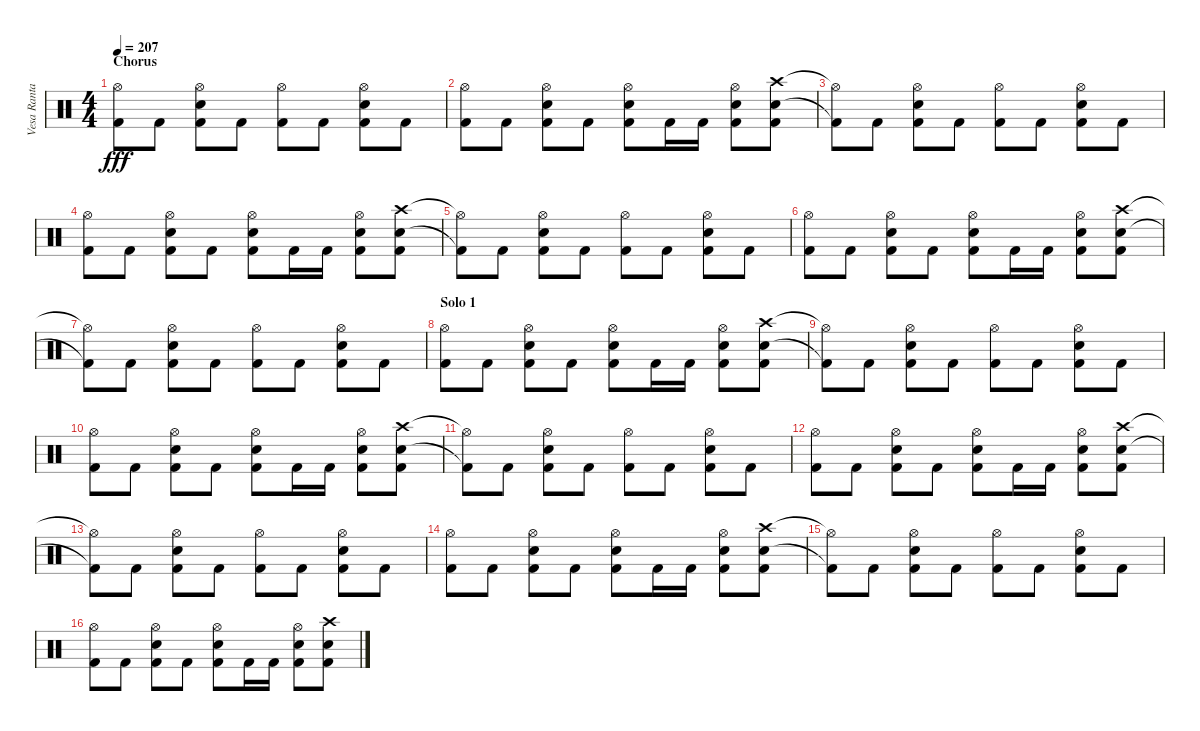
\track ("Vesa Ranta" "Vesa Ranta") {instrument percussion}
\staff {score}
\articulation defaults
\ts (4 4)
\section ("" "Chorus")
\tempo 207
\clef neutral
\ks c
("Hi-Hat (open)"{t} "Kick (hit) 2"{t}).8{dy fff} "Kick (hit) 2".8 ("Hi-Hat (open)" "Snare (hit) 2" "Kick (hit) 2").8 "Kick (hit) 2".8 ("Hi-Hat (open)" "Kick (hit) 2").8 "Kick (hit) 2".8 ("Hi-Hat (open)" "Snare (hit) 2" "Kick (hit) 2").8 "Kick (hit) 2".8 |
("Hi-Hat (open)" "Kick (hit) 2").8 "Kick (hit) 2".8 ("Hi-Hat (open)" "Snare (hit) 2" "Kick (hit) 2").8 "Kick (hit) 2".8 ("Hi-Hat (open)" "Snare (hit) 2" "Kick (hit) 2").8 "Kick (hit) 2".16 "Kick (hit) 2".16 ("Hi-Hat (open)" "Snare (hit) 2" "Kick (hit) 2").8 ("Crash high (hit)" "Snare (hit) 2" "Kick (hit) 2").8 |
("Hi-Hat (open)"{t} "Kick (hit) 2"{t}).8 "Kick (hit) 2".8 ("Hi-Hat (open)" "Snare (hit) 2" "Kick (hit) 2").8 "Kick (hit) 2".8 ("Hi-Hat (open)" "Kick (hit) 2").8 "Kick (hit) 2".8 ("Hi-Hat (open)" "Snare (hit) 2" "Kick (hit) 2").8 "Kick (hit) 2".8 |
("Hi-Hat (open)" "Kick (hit) 2").8 "Kick (hit) 2".8 ("Hi-Hat (open)" "Snare (hit) 2" "Kick (hit) 2").8 "Kick (hit) 2".8 ("Hi-Hat (open)" "Snare (hit) 2" "Kick (hit) 2").8 "Kick (hit) 2".16 "Kick (hit) 2".16 ("Hi-Hat (open)" "Snare (hit) 2" "Kick (hit) 2").8 ("Crash high (hit)" "Snare (hit) 2" "Kick (hit) 2").8 |
("Hi-Hat (open)"{t} "Kick (hit) 2"{t}).8 "Kick (hit) 2".8 ("Hi-Hat (open)" "Snare (hit) 2" "Kick (hit) 2").8 "Kick (hit) 2".8 ("Hi-Hat (open)" "Kick (hit) 2").8 "Kick (hit) 2".8 ("Hi-Hat (open)" "Snare (hit) 2" "Kick (hit) 2").8 "Kick (hit) 2".8 |
("Hi-Hat (open)" "Kick (hit) 2").8 "Kick (hit) 2".8 ("Hi-Hat (open)" "Snare (hit) 2" "Kick (hit) 2").8 "Kick (hit) 2".8 ("Hi-Hat (open)" "Snare (hit) 2" "Kick (hit) 2").8 "Kick (hit) 2".16 "Kick (hit) 2".16 ("Hi-Hat (open)" "Snare (hit) 2" "Kick (hit) 2").8 ("Crash high (hit)" "Snare (hit) 2" "Kick (hit) 2").8 |
("Hi-Hat (open)"{t} "Kick (hit) 2"{t}).8 "Kick (hit) 2".8 ("Hi-Hat (open)" "Snare (hit) 2" "Kick (hit) 2").8 "Kick (hit) 2".8 ("Hi-Hat (open)" "Kick (hit) 2").8 "Kick (hit) 2".8 ("Hi-Hat (open)" "Snare (hit) 2" "Kick (hit) 2").8 "Kick (hit) 2".8 |
\section ("" "Solo 1")
("Hi-Hat (open)" "Kick (hit) 2").8 "Kick (hit) 2".8 ("Hi-Hat (open)" "Snare (hit) 2" "Kick (hit) 2").8 "Kick (hit) 2".8 ("Hi-Hat (open)" "Snare (hit) 2" "Kick (hit) 2").8 "Kick (hit) 2".16 "Kick (hit) 2".16 ("Hi-Hat (open)" "Snare (hit) 2" "Kick (hit) 2").8 ("Crash high (hit)" "Snare (hit) 2" "Kick (hit) 2").8 |
("Hi-Hat (open)"{t} "Kick (hit) 2"{t}).8 "Kick (hit) 2".8 ("Hi-Hat (open)" "Snare (hit) 2" "Kick (hit) 2").8 "Kick (hit) 2".8 ("Hi-Hat (open)" "Kick (hit) 2").8 "Kick (hit) 2".8 ("Hi-Hat (open)" "Snare (hit) 2" "Kick (hit) 2").8 "Kick (hit) 2".8 |
("Hi-Hat (open)" "Kick (hit) 2").8 "Kick (hit) 2".8 ("Hi-Hat (open)" "Snare (hit) 2" "Kick (hit) 2").8 "Kick (hit) 2".8 ("Hi-Hat (open)" "Snare (hit) 2" "Kick (hit) 2").8 "Kick (hit) 2".16 "Kick (hit) 2".16 ("Hi-Hat (open)" "Snare (hit) 2" "Kick (hit) 2").8 ("Crash high (hit)" "Snare (hit) 2" "Kick (hit) 2").8 |
("Hi-Hat (open)"{t} "Kick (hit) 2"{t}).8 "Kick (hit) 2".8 ("Hi-Hat (open)" "Snare (hit) 2" "Kick (hit) 2").8 "Kick (hit) 2".8 ("Hi-Hat (open)" "Kick (hit) 2").8 "Kick (hit) 2".8 ("Hi-Hat (open)" "Snare (hit) 2" "Kick (hit) 2").8 "Kick (hit) 2".8 |
("Hi-Hat (open)" "Kick (hit) 2").8 "Kick (hit) 2".8 ("Hi-Hat (open)" "Snare (hit) 2" "Kick (hit) 2").8 "Kick (hit) 2".8 ("Hi-Hat (open)" "Snare (hit) 2" "Kick (hit) 2").8 "Kick (hit) 2".16 "Kick (hit) 2".16 ("Hi-Hat (open)" "Snare (hit) 2" "Kick (hit) 2").8 ("Crash high (hit)" "Snare (hit) 2" "Kick (hit) 2").8 |
("Hi-Hat (open)"{t} "Kick (hit) 2"{t}).8 "Kick (hit) 2".8 ("Hi-Hat (open)" "Snare (hit) 2" "Kick (hit) 2").8 "Kick (hit) 2".8 ("Hi-Hat (open)" "Kick (hit) 2").8 "Kick (hit) 2".8 ("Hi-Hat (open)" "Snare (hit) 2" "Kick (hit) 2").8 "Kick (hit) 2".8 |
("Hi-Hat (open)" "Kick (hit) 2").8 "Kick (hit) 2".8 ("Hi-Hat (open)" "Snare (hit) 2" "Kick (hit) 2").8 "Kick (hit) 2".8 ("Hi-Hat (open)" "Snare (hit) 2" "Kick (hit) 2").8 "Kick (hit) 2".16 "Kick (hit) 2".16 ("Hi-Hat (open)" "Snare (hit) 2" "Kick (hit) 2").8 ("Crash high (hit)" "Snare (hit) 2" "Kick (hit) 2").8 |
("Hi-Hat (open)"{t} "Kick (hit) 2"{t}).8 "Kick (hit) 2".8 ("Hi-Hat (open)" "Snare (hit) 2" "Kick (hit) 2").8 "Kick (hit) 2".8 ("Hi-Hat (open)" "Kick (hit) 2").8 "Kick (hit) 2".8 ("Hi-Hat (open)" "Snare (hit) 2" "Kick (hit) 2").8 "Kick (hit) 2".8 |
("Hi-Hat (open)" "Kick (hit) 2").8 "Kick (hit) 2".8 ("Hi-Hat (open)" "Snare (hit) 2" "Kick (hit) 2").8 "Kick (hit) 2".8 ("Hi-Hat (open)" "Snare (hit) 2" "Kick (hit) 2").8 "Kick (hit) 2".16 "Kick (hit) 2".16 ("Hi-Hat (open)" "Snare (hit) 2" "Kick (hit) 2").8 ("Crash high (hit)" "Snare (hit) 2" "Kick (hit) 2").8
